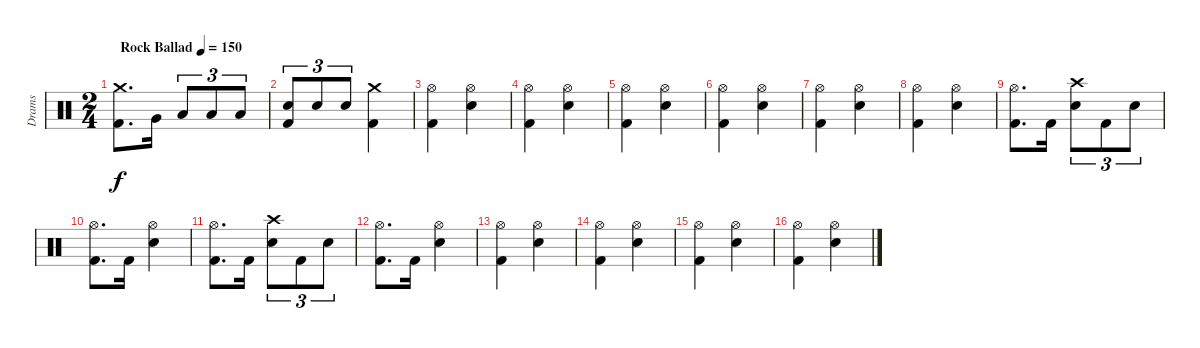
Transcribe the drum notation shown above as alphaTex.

\track ("Drams" "Drams") {instrument percussion}
\staff {score}
\articulation defaults
\ts (2 4)
\tempo (150 "Rock Ballad")
\clef neutral
\ks aminor
("Kick (hit) 2" "Crash medium (hit)").8{d dy f} "Very Low Tom (hit)".16 "Low Tom (hit)".8{tu (3 2)} "Low Tom (hit)".8{tu (3 2)} "Low Tom (hit)".8{tu (3 2)} |
("Electric Snare (hit)" "Kick (hit) 2").8{tu (3 2)} "Electric Snare (hit)".8{tu (3 2)} "Electric Snare (hit)".8{tu (3 2)} ("Kick (hit) 2" "Crash medium (hit)").4 |
("Hi-Hat (open)" "Kick (hit) 2").4 ("Hi-Hat (open)" "Electric Snare (hit)").4 |
("Hi-Hat (open)" "Kick (hit) 2").4 ("Hi-Hat (open)" "Electric Snare (hit)").4 |
("Hi-Hat (open)" "Kick (hit) 2").4 ("Hi-Hat (open)" "Electric Snare (hit)").4 |
("Hi-Hat (open)" "Kick (hit) 2").4 ("Hi-Hat (open)" "Electric Snare (hit)").4 |
("Hi-Hat (open)" "Kick (hit) 2").4 ("Hi-Hat (open)" "Electric Snare (hit)").4 |
("Hi-Hat (open)" "Kick (hit) 2").4 ("Hi-Hat (open)" "Electric Snare (hit)").4 |
("Kick (hit) 2" "Hi-Hat (open)").8{d} "Kick (hit) 2".16 ("Electric Snare (hit)" "Crash high (hit)").8{tu (3 2)} "Kick (hit) 2".8{tu (3 2)} "Electric Snare (hit)".8{tu (3 2)} |
("Kick (hit) 2" "Hi-Hat (open)").8{d} "Kick (hit) 2".16 ("Electric Snare (hit)" "Hi-Hat (open)").4 |
("Kick (hit) 2" "Hi-Hat (open)").8{d} "Kick (hit) 2".16 ("Electric Snare (hit)" "Crash high (hit)").8{tu (3 2)} "Kick (hit) 2".8{tu (3 2)} "Electric Snare (hit)".8{tu (3 2)} |
("Kick (hit) 2" "Hi-Hat (open)").8{d} "Kick (hit) 2".16 ("Electric Snare (hit)" "Hi-Hat (open)").4 |
("Hi-Hat (open)" "Kick (hit) 2").4 ("Hi-Hat (open)" "Electric Snare (hit)").4 |
("Hi-Hat (open)" "Kick (hit) 2").4 ("Hi-Hat (open)" "Electric Snare (hit)").4 |
("Hi-Hat (open)" "Kick (hit) 2").4 ("Hi-Hat (open)" "Electric Snare (hit)").4 |
("Hi-Hat (open)" "Kick (hit) 2").4 ("Hi-Hat (open)" "Electric Snare (hit)").4
